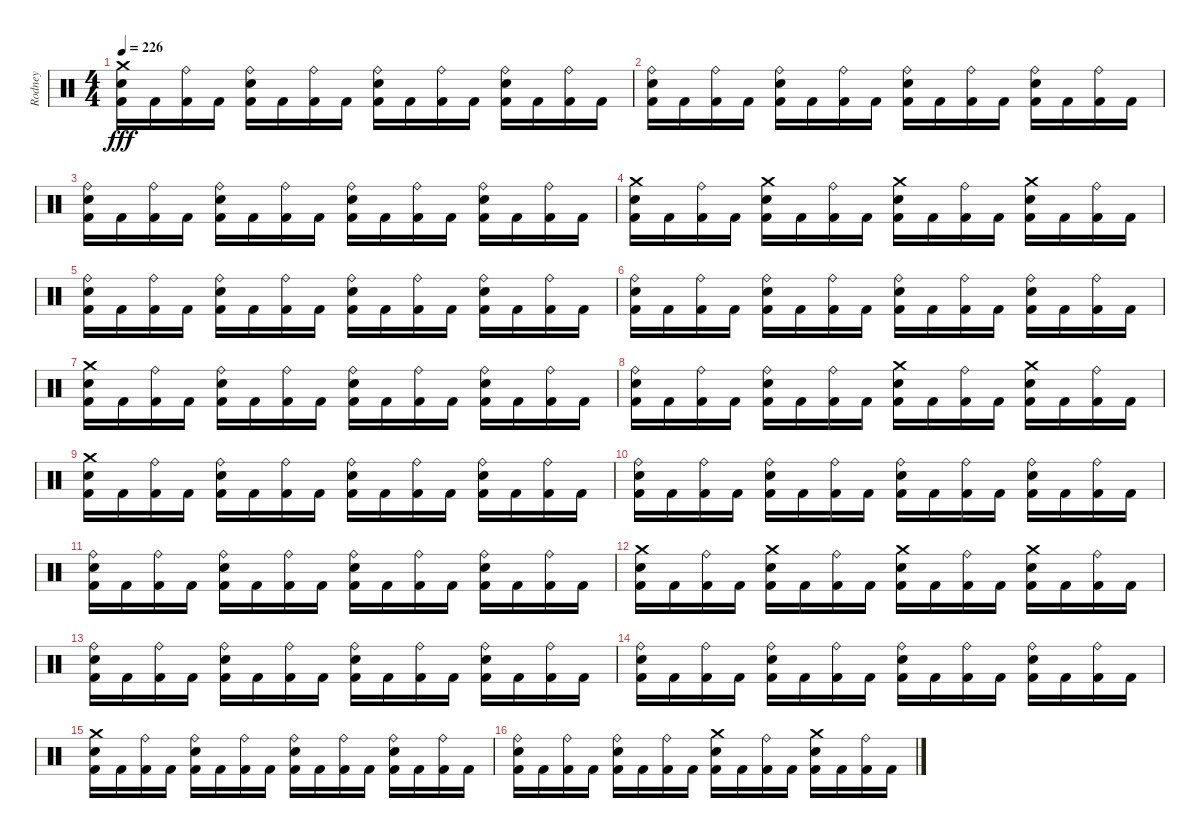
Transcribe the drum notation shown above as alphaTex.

\track ("Rodney" "Rodney") {instrument percussion}
\staff {score}
\articulation defaults
\ts (4 4)
\tempo 226
\clef neutral
\ks c
("Crash medium (hit)" "Snare (hit) 2" "Kick (hit) 2").16{dy fff} "Kick (hit) 2".16 ("Ride (bell)" "Kick (hit) 2").16 "Kick (hit) 2".16 ("Ride (bell)" "Snare (hit) 2" "Kick (hit) 2").16 "Kick (hit) 2".16 ("Ride (bell)" "Kick (hit) 2").16 "Kick (hit) 2".16 ("Ride (bell)" "Snare (hit) 2" "Kick (hit) 2").16 "Kick (hit) 2".16 ("Ride (bell)" "Kick (hit) 2").16 "Kick (hit) 2".16 ("Ride (bell)" "Snare (hit) 2" "Kick (hit) 2").16 "Kick (hit) 2".16 ("Ride (bell)" "Kick (hit) 2").16 "Kick (hit) 2".16 |
("Ride (bell)" "Snare (hit) 2" "Kick (hit) 2").16 "Kick (hit) 2".16 ("Ride (bell)" "Kick (hit) 2").16 "Kick (hit) 2".16 ("Ride (bell)" "Snare (hit) 2" "Kick (hit) 2").16 "Kick (hit) 2".16 ("Ride (bell)" "Kick (hit) 2").16 "Kick (hit) 2".16 ("Ride (bell)" "Snare (hit) 2" "Kick (hit) 2").16 "Kick (hit) 2".16 ("Ride (bell)" "Kick (hit) 2").16 "Kick (hit) 2".16 ("Ride (bell)" "Snare (hit) 2" "Kick (hit) 2").16 "Kick (hit) 2".16 ("Ride (bell)" "Kick (hit) 2").16 "Kick (hit) 2".16 |
("Ride (bell)" "Snare (hit) 2" "Kick (hit) 2").16 "Kick (hit) 2".16 ("Ride (bell)" "Kick (hit) 2").16 "Kick (hit) 2".16 ("Ride (bell)" "Snare (hit) 2" "Kick (hit) 2").16 "Kick (hit) 2".16 ("Ride (bell)" "Kick (hit) 2").16 "Kick (hit) 2".16 ("Ride (bell)" "Snare (hit) 2" "Kick (hit) 2").16 "Kick (hit) 2".16 ("Ride (bell)" "Kick (hit) 2").16 "Kick (hit) 2".16 ("Ride (bell)" "Snare (hit) 2" "Kick (hit) 2").16 "Kick (hit) 2".16 ("Ride (bell)" "Kick (hit) 2").16 "Kick (hit) 2".16 |
("Crash medium (hit)" "Snare (hit) 2" "Kick (hit) 2").16 "Kick (hit) 2".16 ("Ride (bell)" "Kick (hit) 2").16 "Kick (hit) 2".16 ("Crash medium (hit)" "Snare (hit) 2" "Kick (hit) 2").16 "Kick (hit) 2".16 ("Ride (bell)" "Kick (hit) 2").16 "Kick (hit) 2".16 ("Crash medium (hit)" "Snare (hit) 2" "Kick (hit) 2").16 "Kick (hit) 2".16 ("Ride (bell)" "Kick (hit) 2").16 "Kick (hit) 2".16 ("Crash medium (hit)" "Snare (hit) 2" "Kick (hit) 2").16 "Kick (hit) 2".16 ("Ride (bell)" "Kick (hit) 2").16 "Kick (hit) 2".16 |
("Ride (bell)" "Snare (hit) 2" "Kick (hit) 2").16 "Kick (hit) 2".16 ("Ride (bell)" "Kick (hit) 2").16 "Kick (hit) 2".16 ("Ride (bell)" "Snare (hit) 2" "Kick (hit) 2").16 "Kick (hit) 2".16 ("Ride (bell)" "Kick (hit) 2").16 "Kick (hit) 2".16 ("Ride (bell)" "Snare (hit) 2" "Kick (hit) 2").16 "Kick (hit) 2".16 ("Ride (bell)" "Kick (hit) 2").16 "Kick (hit) 2".16 ("Ride (bell)" "Snare (hit) 2" "Kick (hit) 2").16 "Kick (hit) 2".16 ("Ride (bell)" "Kick (hit) 2").16 "Kick (hit) 2".16 |
("Ride (bell)" "Snare (hit) 2" "Kick (hit) 2").16 "Kick (hit) 2".16 ("Ride (bell)" "Kick (hit) 2").16 "Kick (hit) 2".16 ("Ride (bell)" "Snare (hit) 2" "Kick (hit) 2").16 "Kick (hit) 2".16 ("Ride (bell)" "Kick (hit) 2").16 "Kick (hit) 2".16 ("Ride (bell)" "Snare (hit) 2" "Kick (hit) 2").16 "Kick (hit) 2".16 ("Ride (bell)" "Kick (hit) 2").16 "Kick (hit) 2".16 ("Ride (bell)" "Snare (hit) 2" "Kick (hit) 2").16 "Kick (hit) 2".16 ("Ride (bell)" "Kick (hit) 2").16 "Kick (hit) 2".16 |
("Crash medium (hit)" "Snare (hit) 2" "Kick (hit) 2").16 "Kick (hit) 2".16 ("Ride (bell)" "Kick (hit) 2").16 "Kick (hit) 2".16 ("Ride (bell)" "Snare (hit) 2" "Kick (hit) 2").16 "Kick (hit) 2".16 ("Ride (bell)" "Kick (hit) 2").16 "Kick (hit) 2".16 ("Ride (bell)" "Snare (hit) 2" "Kick (hit) 2").16 "Kick (hit) 2".16 ("Ride (bell)" "Kick (hit) 2").16 "Kick (hit) 2".16 ("Ride (bell)" "Snare (hit) 2" "Kick (hit) 2").16 "Kick (hit) 2".16 ("Ride (bell)" "Kick (hit) 2").16 "Kick (hit) 2".16 |
("Ride (bell)" "Snare (hit) 2" "Kick (hit) 2").16 "Kick (hit) 2".16 ("Ride (bell)" "Kick (hit) 2").16 "Kick (hit) 2".16 ("Ride (bell)" "Snare (hit) 2" "Kick (hit) 2").16 "Kick (hit) 2".16 ("Ride (bell)" "Kick (hit) 2").16 "Kick (hit) 2".16 ("Crash medium (hit)" "Snare (hit) 2" "Kick (hit) 2").16 "Kick (hit) 2".16 ("Ride (bell)" "Kick (hit) 2").16 "Kick (hit) 2".16 ("Crash medium (hit)" "Snare (hit) 2" "Kick (hit) 2").16 "Kick (hit) 2".16 ("Ride (bell)" "Kick (hit) 2").16 "Kick (hit) 2".16 |
("Crash medium (hit)" "Snare (hit) 2" "Kick (hit) 2").16 "Kick (hit) 2".16 ("Ride (bell)" "Kick (hit) 2").16 "Kick (hit) 2".16 ("Ride (bell)" "Snare (hit) 2" "Kick (hit) 2").16 "Kick (hit) 2".16 ("Ride (bell)" "Kick (hit) 2").16 "Kick (hit) 2".16 ("Ride (bell)" "Snare (hit) 2" "Kick (hit) 2").16 "Kick (hit) 2".16 ("Ride (bell)" "Kick (hit) 2").16 "Kick (hit) 2".16 ("Ride (bell)" "Snare (hit) 2" "Kick (hit) 2").16 "Kick (hit) 2".16 ("Ride (bell)" "Kick (hit) 2").16 "Kick (hit) 2".16 |
("Ride (bell)" "Snare (hit) 2" "Kick (hit) 2").16 "Kick (hit) 2".16 ("Ride (bell)" "Kick (hit) 2").16 "Kick (hit) 2".16 ("Ride (bell)" "Snare (hit) 2" "Kick (hit) 2").16 "Kick (hit) 2".16 ("Ride (bell)" "Kick (hit) 2").16 "Kick (hit) 2".16 ("Ride (bell)" "Snare (hit) 2" "Kick (hit) 2").16 "Kick (hit) 2".16 ("Ride (bell)" "Kick (hit) 2").16 "Kick (hit) 2".16 ("Ride (bell)" "Snare (hit) 2" "Kick (hit) 2").16 "Kick (hit) 2".16 ("Ride (bell)" "Kick (hit) 2").16 "Kick (hit) 2".16 |
("Ride (bell)" "Snare (hit) 2" "Kick (hit) 2").16 "Kick (hit) 2".16 ("Ride (bell)" "Kick (hit) 2").16 "Kick (hit) 2".16 ("Ride (bell)" "Snare (hit) 2" "Kick (hit) 2").16 "Kick (hit) 2".16 ("Ride (bell)" "Kick (hit) 2").16 "Kick (hit) 2".16 ("Ride (bell)" "Snare (hit) 2" "Kick (hit) 2").16 "Kick (hit) 2".16 ("Ride (bell)" "Kick (hit) 2").16 "Kick (hit) 2".16 ("Ride (bell)" "Snare (hit) 2" "Kick (hit) 2").16 "Kick (hit) 2".16 ("Ride (bell)" "Kick (hit) 2").16 "Kick (hit) 2".16 |
("Crash medium (hit)" "Snare (hit) 2" "Kick (hit) 2").16 "Kick (hit) 2".16 ("Ride (bell)" "Kick (hit) 2").16 "Kick (hit) 2".16 ("Crash medium (hit)" "Snare (hit) 2" "Kick (hit) 2").16 "Kick (hit) 2".16 ("Ride (bell)" "Kick (hit) 2").16 "Kick (hit) 2".16 ("Crash medium (hit)" "Snare (hit) 2" "Kick (hit) 2").16 "Kick (hit) 2".16 ("Ride (bell)" "Kick (hit) 2").16 "Kick (hit) 2".16 ("Crash medium (hit)" "Snare (hit) 2" "Kick (hit) 2").16 "Kick (hit) 2".16 ("Ride (bell)" "Kick (hit) 2").16 "Kick (hit) 2".16 |
("Ride (bell)" "Snare (hit) 2" "Kick (hit) 2").16 "Kick (hit) 2".16 ("Ride (bell)" "Kick (hit) 2").16 "Kick (hit) 2".16 ("Ride (bell)" "Snare (hit) 2" "Kick (hit) 2").16 "Kick (hit) 2".16 ("Ride (bell)" "Kick (hit) 2").16 "Kick (hit) 2".16 ("Ride (bell)" "Snare (hit) 2" "Kick (hit) 2").16 "Kick (hit) 2".16 ("Ride (bell)" "Kick (hit) 2").16 "Kick (hit) 2".16 ("Ride (bell)" "Snare (hit) 2" "Kick (hit) 2").16 "Kick (hit) 2".16 ("Ride (bell)" "Kick (hit) 2").16 "Kick (hit) 2".16 |
("Ride (bell)" "Snare (hit) 2" "Kick (hit) 2").16 "Kick (hit) 2".16 ("Ride (bell)" "Kick (hit) 2").16 "Kick (hit) 2".16 ("Ride (bell)" "Snare (hit) 2" "Kick (hit) 2").16 "Kick (hit) 2".16 ("Ride (bell)" "Kick (hit) 2").16 "Kick (hit) 2".16 ("Ride (bell)" "Snare (hit) 2" "Kick (hit) 2").16 "Kick (hit) 2".16 ("Ride (bell)" "Kick (hit) 2").16 "Kick (hit) 2".16 ("Ride (bell)" "Snare (hit) 2" "Kick (hit) 2").16 "Kick (hit) 2".16 ("Ride (bell)" "Kick (hit) 2").16 "Kick (hit) 2".16 |
("Crash medium (hit)" "Snare (hit) 2" "Kick (hit) 2").16 "Kick (hit) 2".16 ("Ride (bell)" "Kick (hit) 2").16 "Kick (hit) 2".16 ("Ride (bell)" "Snare (hit) 2" "Kick (hit) 2").16 "Kick (hit) 2".16 ("Ride (bell)" "Kick (hit) 2").16 "Kick (hit) 2".16 ("Ride (bell)" "Snare (hit) 2" "Kick (hit) 2").16 "Kick (hit) 2".16 ("Ride (bell)" "Kick (hit) 2").16 "Kick (hit) 2".16 ("Ride (bell)" "Snare (hit) 2" "Kick (hit) 2").16 "Kick (hit) 2".16 ("Ride (bell)" "Kick (hit) 2").16 "Kick (hit) 2".16 |
("Ride (bell)" "Snare (hit) 2" "Kick (hit) 2").16 "Kick (hit) 2".16 ("Ride (bell)" "Kick (hit) 2").16 "Kick (hit) 2".16 ("Ride (bell)" "Snare (hit) 2" "Kick (hit) 2").16 "Kick (hit) 2".16 ("Ride (bell)" "Kick (hit) 2").16 "Kick (hit) 2".16 ("Crash medium (hit)" "Snare (hit) 2" "Kick (hit) 2").16 "Kick (hit) 2".16 ("Ride (bell)" "Kick (hit) 2").16 "Kick (hit) 2".16 ("Crash medium (hit)" "Snare (hit) 2" "Kick (hit) 2").16 "Kick (hit) 2".16 ("Ride (bell)" "Kick (hit) 2").16 "Kick (hit) 2".16
